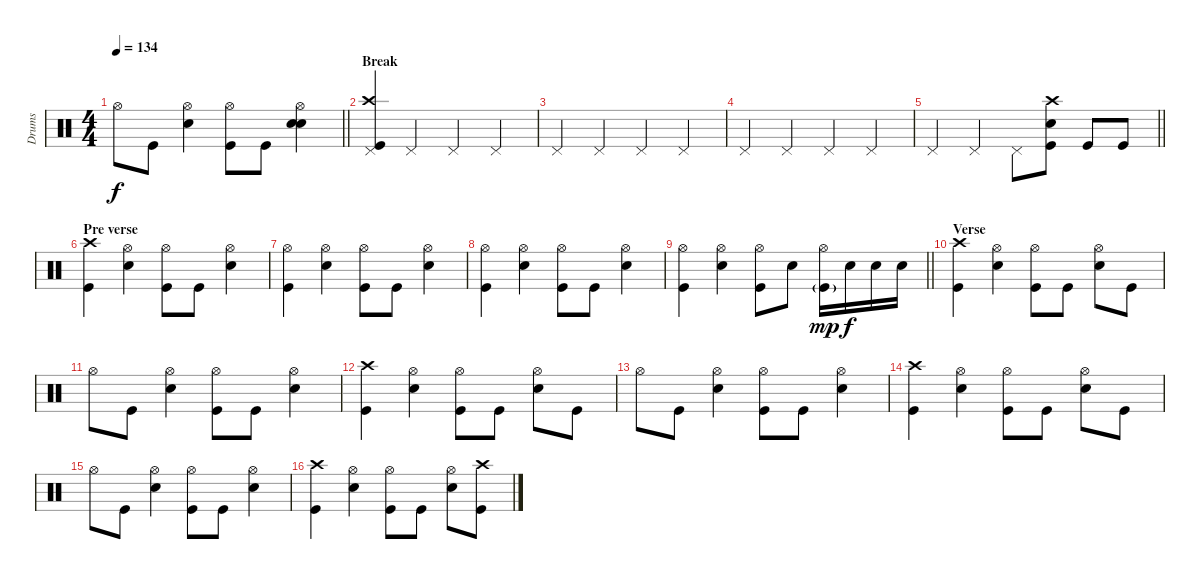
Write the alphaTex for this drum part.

\track ("Drums" "Drums") {instrument percussion}
\staff {score}
\articulation defaults
\ts (4 4)
\tempo 134
\clef neutral
\barLineRight lightlight
\ks c "Hi-Hat (open)".8{dy f} "Kick (hit)".8
("Hi-Hat (open)" "Snare (hit) 2").4 ("Hi-Hat (open)" "Kick (hit)").8 "Kick (hit)".8 ("Hi-Hat (open)" "Electric Snare (hit)" "Snare (hit) 2").4 |
\section ("" "Break")
("Crash high (hit)" "Pedal Hi-Hat (hit)" "Kick (hit)").4 "Pedal Hi-Hat (hit)".4 "Pedal Hi-Hat (hit)".4 "Pedal Hi-Hat (hit)".4 |
"Pedal Hi-Hat (hit)".4 "Pedal Hi-Hat (hit)".4 "Pedal Hi-Hat (hit)".4 "Pedal Hi-Hat (hit)".4 |
"Pedal Hi-Hat (hit)".4 "Pedal Hi-Hat (hit)".4 "Pedal Hi-Hat (hit)".4 "Pedal Hi-Hat (hit)".4 |
\barLineRight lightlight "Pedal Hi-Hat (hit)".4 "Pedal Hi-Hat (hit)".4 "Pedal Hi-Hat (hit)".8
("Crash high (hit)" "Electric Snare (hit)" "Kick (hit)").8 "Kick (hit)".8 "Kick (hit)".8 |
\section ("" "Pre verse")
("Crash high (hit)" "Kick (hit)").4 ("Hi-Hat (open)" "Snare (hit) 2").4 ("Hi-Hat (open)" "Kick (hit)").8 "Kick (hit)".8 ("Hi-Hat (open)" "Snare (hit) 2").4 |
("Hi-Hat (open)" "Kick (hit)").4 ("Hi-Hat (open)" "Snare (hit) 2").4 ("Hi-Hat (open)" "Kick (hit)").8 "Kick (hit)".8 ("Hi-Hat (open)" "Snare (hit) 2").4 |
("Hi-Hat (open)" "Kick (hit)").4 ("Hi-Hat (open)" "Snare (hit) 2").4 ("Hi-Hat (open)" "Kick (hit)").8 "Kick (hit)".8 ("Hi-Hat (open)" "Snare (hit) 2").4 |
\barLineRight lightlight
("Hi-Hat (open)" "Kick (hit)").4 ("Hi-Hat (open)" "Snare (hit) 2").4 ("Hi-Hat (open)" "Kick (hit)").8 "Snare (hit) 2".8 ("Hi-Hat (open)" "Kick (hit)"{g}).16{dy mp} "Electric Snare (hit)".16{dy f} "Electric Snare (hit)".16 "Electric Snare (hit)".16 |
\section ("" "Verse")
("Crash high (hit)" "Kick (hit)").4 ("Hi-Hat (open)" "Electric Snare (hit)").4 ("Hi-Hat (open)" "Kick (hit)").8 "Kick (hit)".8 ("Hi-Hat (open)" "Electric Snare (hit)").8 "Kick (hit)".8 |
"Hi-Hat (open)".8 "Kick (hit)".8 ("Hi-Hat (open)" "Electric Snare (hit)").4 ("Hi-Hat (open)" "Kick (hit)").8 "Kick (hit)".8 ("Hi-Hat (open)" "Electric Snare (hit)").4 |
("Crash high (hit)" "Kick (hit)").4 ("Hi-Hat (open)" "Electric Snare (hit)").4 ("Hi-Hat (open)" "Kick (hit)").8 "Kick (hit)".8 ("Hi-Hat (open)" "Electric Snare (hit)").8 "Kick (hit)".8 |
"Hi-Hat (open)".8 "Kick (hit)".8 ("Hi-Hat (open)" "Electric Snare (hit)").4 ("Hi-Hat (open)" "Kick (hit)").8 "Kick (hit)".8 ("Hi-Hat (open)" "Electric Snare (hit)").4 |
("Crash high (hit)" "Kick (hit)").4 ("Hi-Hat (open)" "Electric Snare (hit)").4 ("Hi-Hat (open)" "Kick (hit)").8 "Kick (hit)".8 ("Hi-Hat (open)" "Electric Snare (hit)").8 "Kick (hit)".8 |
"Hi-Hat (open)".8 "Kick (hit)".8 ("Hi-Hat (open)" "Electric Snare (hit)").4 ("Hi-Hat (open)" "Kick (hit)").8 "Kick (hit)".8 ("Hi-Hat (open)" "Electric Snare (hit)").4 |
("Crash high (hit)" "Kick (hit)").4 ("Hi-Hat (open)" "Electric Snare (hit)").4 ("Hi-Hat (open)" "Kick (hit)").8 "Kick (hit)".8 ("Hi-Hat (open)" "Electric Snare (hit)").8 ("Crash high (hit)" "Kick (hit)").8
